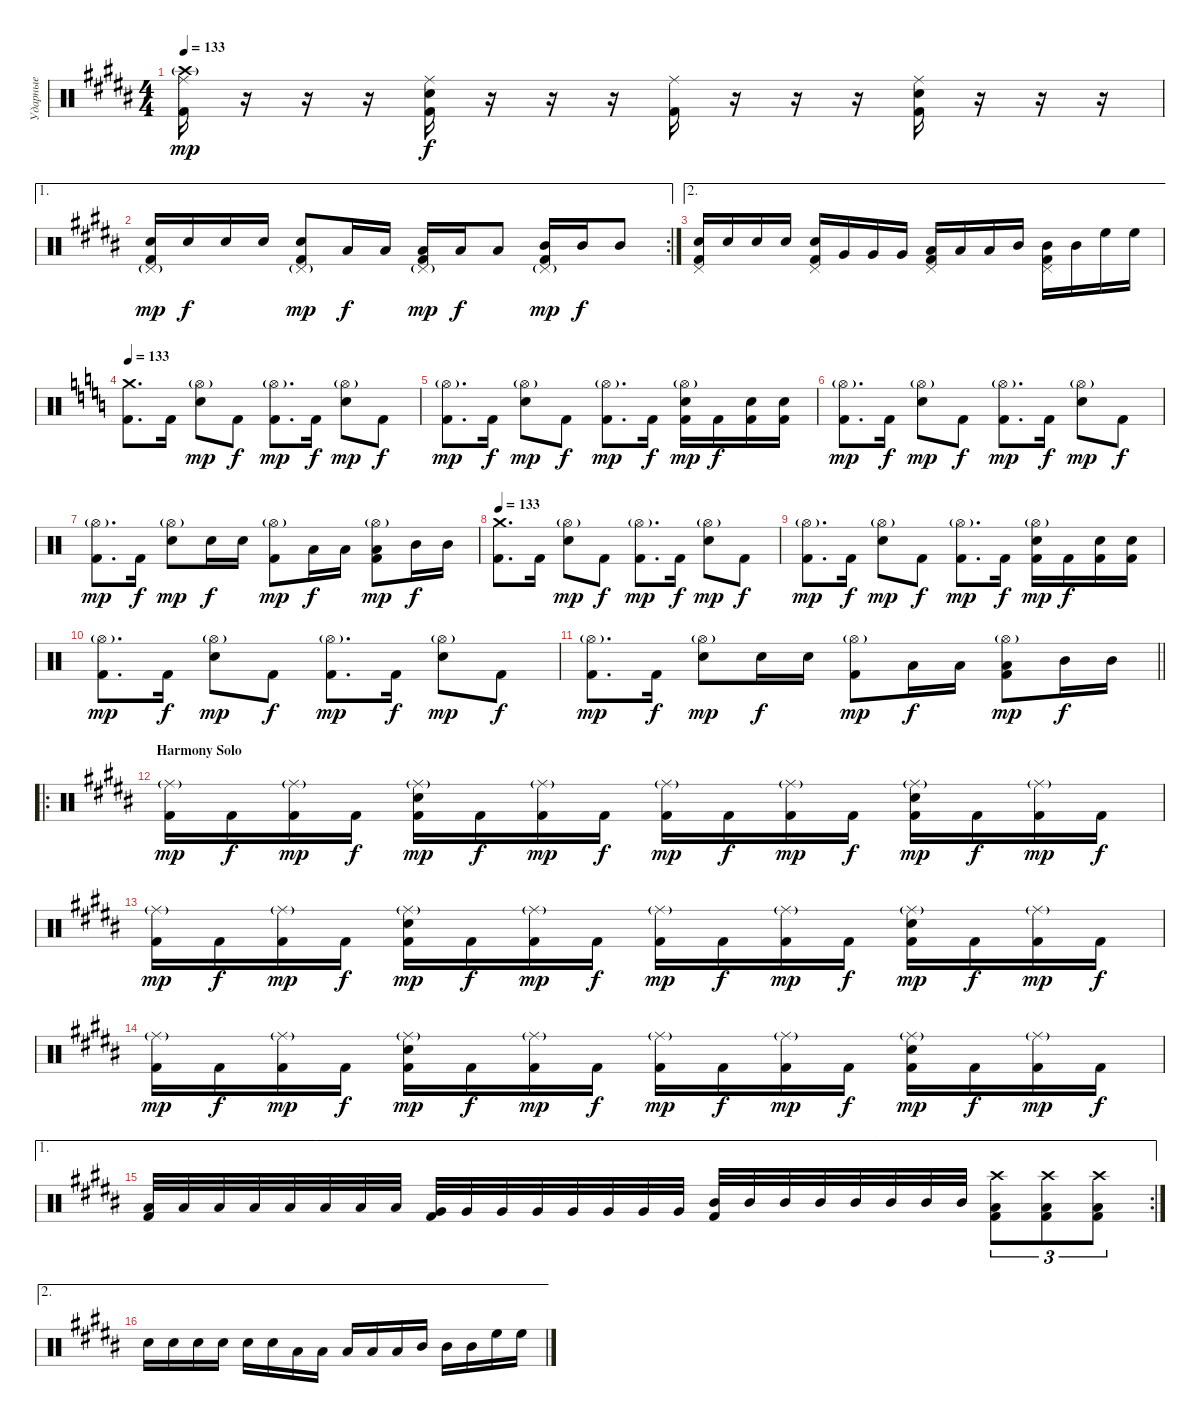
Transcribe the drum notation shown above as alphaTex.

\track ("Ударные" "Ударные") {instrument percussion}
\staff {score}
\articulation defaults
\ts (4 4)
\tempo 133
\clef neutral
\ks g#minor
("Ride (middle)" "Crash high (hit)"{g} "Kick (hit) 2").16{dy mp} r.16 r.16 r.16 ("Ride (middle)" "Electric Snare (hit)" "Kick (hit) 2").16{dy f} r.16 r.16 r.16 ("Ride (middle)" "Kick (hit) 2").16 r.16 r.16 r.16 ("Ride (middle)" "Electric Snare (hit)" "Kick (hit) 2").16 r.16 r.16 r.16 |
\ae 1
\rc 2
("Pedal Hi-Hat (hit)"{g} "Electric Snare (hit)" "Kick (hit) 2").16{dy mp} "Electric Snare (hit)".16{dy f} "Electric Snare (hit)".16 "Electric Snare (hit)".16 ("Pedal Hi-Hat (hit)"{g} "Electric Snare (hit)" "Kick (hit) 2").8{dy mp} "Low Tom (hit)".16{dy f} "Low Tom (hit)".16 ("Pedal Hi-Hat (hit)"{g} "Low Tom (hit)" "Kick (hit) 2").16{dy mp} "Low Tom (hit)".16{dy f} "Low Tom (hit)".8 ("Pedal Hi-Hat (hit)"{g} "Mid Tom (hit)" "Kick (hit) 2").16{dy mp} "Mid Tom (hit)".16{dy f} "Mid Tom (hit)".8 |
\ae 2
("Kick (hit) 2" "Pedal Hi-Hat (hit)" "Electric Snare (hit)").16 "Electric Snare (hit)".16 "Electric Snare (hit)".16 "Electric Snare (hit)".16 ("Kick (hit) 2" "Pedal Hi-Hat (hit)" "Electric Snare (hit)").16 "Very Low Tom (hit)".16 "Very Low Tom (hit)".16 "Very Low Tom (hit)".16 ("Kick (hit) 2" "Pedal Hi-Hat (hit)" "Low Tom (hit)").16 "Low Tom (hit)".16 "Low Tom (hit)".16 "Mid Tom (hit)".16 ("Kick (hit) 2" "Pedal Hi-Hat (hit)" "Mid Tom (hit)").16 "Mid Tom (hit)".16 "High Floor Tom (hit)".16 "High Floor Tom (hit)".16 |
\tempo 133
\ks c
("Crash medium (hit)" "Kick (hit) 2").8{d} "Kick (hit) 2".16 ("Hi-Hat (open)"{g} "Electric Snare (hit)").8{dy mp} "Kick (hit) 2".8{dy f} ("Hi-Hat (open)"{g} "Kick (hit) 2").8{d dy mp} "Kick (hit) 2".16{dy f} ("Hi-Hat (open)"{g} "Electric Snare (hit)").8{dy mp} "Kick (hit) 2".8{dy f} |
("Hi-Hat (open)"{g} "Kick (hit) 2").8{d dy mp} "Kick (hit) 2".16{dy f} ("Hi-Hat (open)"{g} "Electric Snare (hit)").8{dy mp} "Kick (hit) 2".8{dy f} ("Hi-Hat (open)"{g} "Kick (hit) 2").8{d dy mp} "Kick (hit) 2".16{dy f} ("Hi-Hat (open)"{g} "Electric Snare (hit)" "Kick (hit) 2").16{dy mp} "Kick (hit) 2".16{dy f} ("Electric Snare (hit)" "Kick (hit) 2").16 ("Electric Snare (hit)" "Kick (hit) 2").16 |
("Hi-Hat (open)"{g} "Kick (hit) 2").8{d dy mp} "Kick (hit) 2".16{dy f} ("Hi-Hat (open)"{g} "Electric Snare (hit)").8{dy mp} "Kick (hit) 2".8{dy f} ("Hi-Hat (open)"{g} "Kick (hit) 2").8{d dy mp} "Kick (hit) 2".16{dy f} ("Hi-Hat (open)"{g} "Electric Snare (hit)").8{dy mp} "Kick (hit) 2".8{dy f} |
("Hi-Hat (open)"{g} "Kick (hit) 2").8{d dy mp} "Kick (hit) 2".16{dy f} ("Hi-Hat (open)"{g} "Electric Snare (hit)").8{dy mp} "Electric Snare (hit)".16{dy f} "Electric Snare (hit)".16 ("Hi-Hat (open)"{g} "Kick (hit) 2").8{dy mp} "Low Tom (hit)".16{dy f} "Low Tom (hit)".16 ("Hi-Hat (open)"{g} "Low Tom (hit)" "Kick (hit) 2").8{dy mp} "Mid Tom (hit)".16{dy f} "Mid Tom (hit)".16 |
\tempo 133
("Crash medium (hit)" "Kick (hit) 2").8{d} "Kick (hit) 2".16 ("Hi-Hat (open)"{g} "Electric Snare (hit)").8{dy mp} "Kick (hit) 2".8{dy f} ("Hi-Hat (open)"{g} "Kick (hit) 2").8{d dy mp} "Kick (hit) 2".16{dy f} ("Hi-Hat (open)"{g} "Electric Snare (hit)").8{dy mp} "Kick (hit) 2".8{dy f} |
("Hi-Hat (open)"{g} "Kick (hit) 2").8{d dy mp} "Kick (hit) 2".16{dy f} ("Hi-Hat (open)"{g} "Electric Snare (hit)").8{dy mp} "Kick (hit) 2".8{dy f} ("Hi-Hat (open)"{g} "Kick (hit) 2").8{d dy mp} "Kick (hit) 2".16{dy f} ("Hi-Hat (open)"{g} "Electric Snare (hit)" "Kick (hit) 2").16{dy mp} "Kick (hit) 2".16{dy f} ("Electric Snare (hit)" "Kick (hit) 2").16 ("Electric Snare (hit)" "Kick (hit) 2").16 |
("Hi-Hat (open)"{g} "Kick (hit) 2").8{d dy mp} "Kick (hit) 2".16{dy f} ("Hi-Hat (open)"{g} "Electric Snare (hit)").8{dy mp} "Kick (hit) 2".8{dy f} ("Hi-Hat (open)"{g} "Kick (hit) 2").8{d dy mp} "Kick (hit) 2".16{dy f} ("Hi-Hat (open)"{g} "Electric Snare (hit)").8{dy mp} "Kick (hit) 2".8{dy f} |
\barLineRight lightlight
("Hi-Hat (open)"{g} "Kick (hit) 2").8{d dy mp} "Kick (hit) 2".16{dy f} ("Hi-Hat (open)"{g} "Electric Snare (hit)").8{dy mp} "Electric Snare (hit)".16{dy f} "Electric Snare (hit)".16 ("Hi-Hat (open)"{g} "Kick (hit) 2").8{dy mp} "Low Tom (hit)".16{dy f} "Low Tom (hit)".16 ("Hi-Hat (open)"{g} "Low Tom (hit)" "Kick (hit) 2").8{dy mp} "Mid Tom (hit)".16{dy f} "Mid Tom (hit)".16 |
\ro
\section ("" "Harmony Solo")
\ks g#minor
("Ride (middle)"{g} "Kick (hit) 2").16{dy mp} "Kick (hit) 2".16{dy f} ("Ride (middle)"{g} "Kick (hit) 2").16{dy mp} "Kick (hit) 2".16{dy f} ("Ride (middle)"{g} "Electric Snare (hit)" "Kick (hit) 2").16{dy mp} "Kick (hit) 2".16{dy f} ("Ride (middle)"{g} "Kick (hit) 2").16{dy mp} "Kick (hit) 2".16{dy f} ("Ride (middle)"{g} "Kick (hit) 2").16{dy mp} "Kick (hit) 2".16{dy f} ("Ride (middle)"{g} "Kick (hit) 2").16{dy mp} "Kick (hit) 2".16{dy f} ("Ride (middle)"{g} "Electric Snare (hit)" "Kick (hit) 2").16{dy mp} "Kick (hit) 2".16{dy f} ("Ride (middle)"{g} "Kick (hit) 2").16{dy mp} "Kick (hit) 2".16{dy f} |
("Ride (middle)"{g} "Kick (hit) 2").16{dy mp} "Kick (hit) 2".16{dy f} ("Ride (middle)"{g} "Kick (hit) 2").16{dy mp} "Kick (hit) 2".16{dy f} ("Ride (middle)"{g} "Electric Snare (hit)" "Kick (hit) 2").16{dy mp} "Kick (hit) 2".16{dy f} ("Ride (middle)"{g} "Kick (hit) 2").16{dy mp} "Kick (hit) 2".16{dy f} ("Ride (middle)"{g} "Kick (hit) 2").16{dy mp} "Kick (hit) 2".16{dy f} ("Ride (middle)"{g} "Kick (hit) 2").16{dy mp} "Kick (hit) 2".16{dy f} ("Ride (middle)"{g} "Electric Snare (hit)" "Kick (hit) 2").16{dy mp} "Kick (hit) 2".16{dy f} ("Ride (middle)"{g} "Kick (hit) 2").16{dy mp} "Kick (hit) 2".16{dy f} |
("Ride (middle)"{g} "Kick (hit) 2").16{dy mp} "Kick (hit) 2".16{dy f} ("Ride (middle)"{g} "Kick (hit) 2").16{dy mp} "Kick (hit) 2".16{dy f} ("Ride (middle)"{g} "Electric Snare (hit)" "Kick (hit) 2").16{dy mp} "Kick (hit) 2".16{dy f} ("Ride (middle)"{g} "Kick (hit) 2").16{dy mp} "Kick (hit) 2".16{dy f} ("Ride (middle)"{g} "Kick (hit) 2").16{dy mp} "Kick (hit) 2".16{dy f} ("Ride (middle)"{g} "Kick (hit) 2").16{dy mp} "Kick (hit) 2".16{dy f} ("Ride (middle)"{g} "Electric Snare (hit)" "Kick (hit) 2").16{dy mp} "Kick (hit) 2".16{dy f} ("Ride (middle)"{g} "Kick (hit) 2").16{dy mp} "Kick (hit) 2".16{dy f} |
\ae 1
\rc 2
("Low Tom (hit)" "Kick (hit) 2").32 "Low Tom (hit)".32 "Low Tom (hit)".32 "Low Tom (hit)".32 "Low Tom (hit)".32 "Low Tom (hit)".32 "Low Tom (hit)".32 "Low Tom (hit)".32 ("Very Low Tom (hit)" "Kick (hit) 2").32 "Very Low Tom (hit)".32 "Very Low Tom (hit)".32 "Very Low Tom (hit)".32 "Very Low Tom (hit)".32 "Very Low Tom (hit)".32 "Very Low Tom (hit)".32 "Very Low Tom (hit)".32 ("Mid Tom (hit)" "Kick (hit) 2").32 "Mid Tom (hit)".32 "Mid Tom (hit)".32 "Mid Tom (hit)".32 "Mid Tom (hit)".32 "Mid Tom (hit)".32 "Mid Tom (hit)".32 "Mid Tom (hit)".32 ("Crash high (hit)" "Low Floor Tom (hit)" "Kick (hit) 2").8{tu (3 2)} ("Crash high (hit)" "Low Floor Tom (hit)" "Kick (hit) 2").8{tu (3 2)} ("Crash high (hit)" "Low Floor Tom (hit)" "Kick (hit) 2").8{tu (3 2)} |
\ae 2 "Electric Snare (hit)".16 "Electric Snare (hit)".16 "Electric Snare (hit)".16 "Electric Snare (hit)".16 "Electric Snare (hit)".16 "Electric Snare (hit)".16 "Low Tom (hit)".16 "Low Tom (hit)".16 "Low Tom (hit)".16 "Low Tom (hit)".16 "Low Tom (hit)".16 "Mid Tom (hit)".16 "Mid Tom (hit)".16 "Mid Tom (hit)".16 "High Floor Tom (hit)".16 "High Floor Tom (hit)".16
